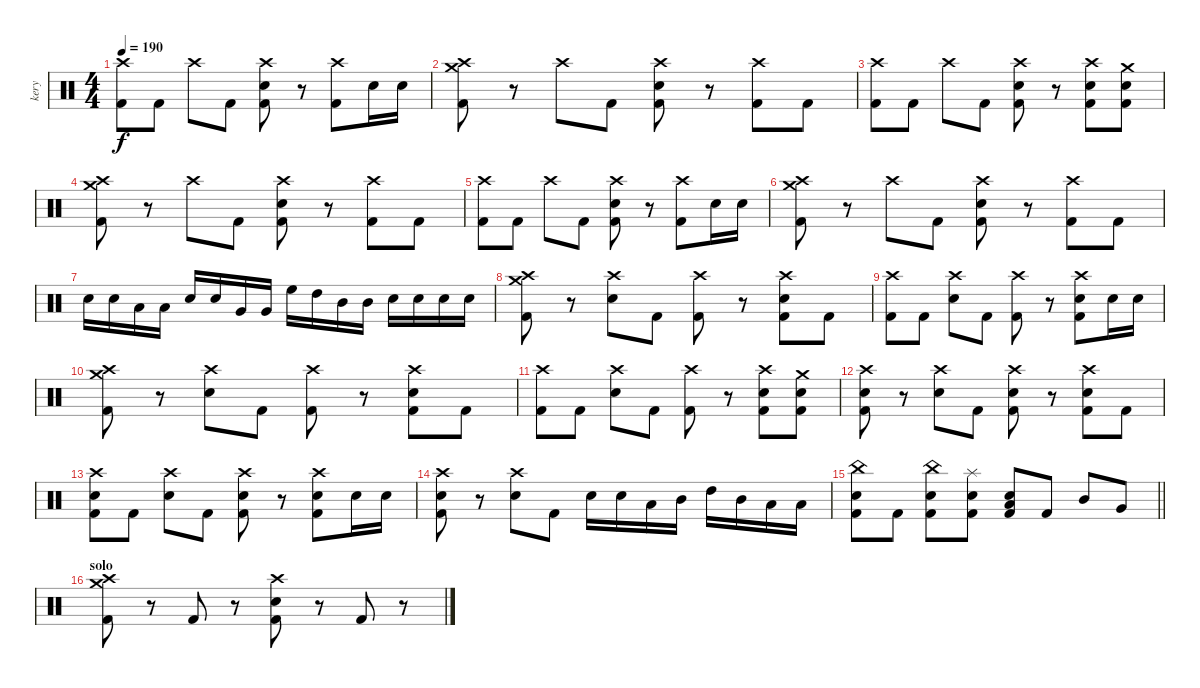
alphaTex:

\track ("kery" "kery") {instrument percussion}
\staff {score}
\articulation defaults
\ts (4 4)
\tempo 190
\clef neutral
\ks c
("Crash high (hit)" "Kick (hit) 2").8{dy f} "Kick (hit) 2".8 "Crash high (hit)".8 "Kick (hit) 2".8 ("Crash high (hit)" "Electric Snare (hit)" "Kick (hit) 2").8 r.8 ("Crash high (hit)" "Kick (hit) 2").8 "Electric Snare (hit)".16 "Electric Snare (hit)".16 |
("Crash high (hit)" "Crash medium (hit)" "Kick (hit) 2").8 r.8 "Crash high (hit)".8 "Kick (hit) 2".8 ("Crash high (hit)" "Electric Snare (hit)" "Kick (hit) 2").8 r.8 ("Crash high (hit)" "Kick (hit) 2").8 "Kick (hit) 2".8 |
("Crash high (hit)" "Kick (hit) 2").8 "Kick (hit) 2".8 "Crash high (hit)".8 "Kick (hit) 2".8 ("Crash high (hit)" "Electric Snare (hit)" "Kick (hit) 2").8 r.8 ("Crash high (hit)" "Electric Snare (hit)" "Kick (hit) 2").8 ("Crash medium (hit)" "Electric Snare (hit)" "Kick (hit) 2").8 |
("Crash high (hit)" "Crash medium (hit)" "Kick (hit) 2").8 r.8 "Crash high (hit)".8 "Kick (hit) 2".8 ("Crash high (hit)" "Electric Snare (hit)" "Kick (hit) 2").8 r.8 ("Crash high (hit)" "Kick (hit) 2").8 "Kick (hit) 2".8 |
("Crash high (hit)" "Kick (hit) 2").8 "Kick (hit) 2".8 "Crash high (hit)".8 "Kick (hit) 2".8 ("Crash high (hit)" "Electric Snare (hit)" "Kick (hit) 2").8 r.8 ("Crash high (hit)" "Kick (hit) 2").8 "Electric Snare (hit)".16 "Electric Snare (hit)".16 |
("Crash high (hit)" "Crash medium (hit)" "Kick (hit) 2").8 r.8 "Crash high (hit)".8 "Kick (hit) 2".8 ("Crash high (hit)" "Electric Snare (hit)" "Kick (hit) 2").8 r.8 ("Crash high (hit)" "Kick (hit) 2").8 "Kick (hit) 2".8 |
"Electric Snare (hit)".16 "Electric Snare (hit)".16 "Low Tom (hit)".16 "Low Tom (hit)".16 "Electric Snare (hit)".16 "Electric Snare (hit)".16 "Very Low Tom (hit)".16 "Very Low Tom (hit)".16 "High Floor Tom (hit)".16 "High Tom (hit)".16 "Mid Tom (hit)".16 "Mid Tom (hit)".16 "Electric Snare (hit)".16 "Electric Snare (hit)".16 "Electric Snare (hit)".16 "Electric Snare (hit)".16 |
("Crash high (hit)" "Crash medium (hit)" "Kick (hit) 2").8 r.8 ("Crash high (hit)" "Electric Snare (hit)").8 "Kick (hit) 2".8 ("Crash high (hit)" "Kick (hit) 2").8 r.8 ("Crash high (hit)" "Electric Snare (hit)" "Kick (hit) 2").8 "Kick (hit) 2".8 |
("Crash high (hit)" "Kick (hit) 2").8 "Kick (hit) 2".8 ("Crash high (hit)" "Electric Snare (hit)").8 "Kick (hit) 2".8 ("Crash high (hit)" "Kick (hit) 2").8 r.8 ("Crash high (hit)" "Electric Snare (hit)" "Kick (hit) 2").8 "Electric Snare (hit)".16 "Electric Snare (hit)".16 |
("Crash high (hit)" "Crash medium (hit)" "Kick (hit) 2").8 r.8 ("Crash high (hit)" "Electric Snare (hit)").8 "Kick (hit) 2".8 ("Crash high (hit)" "Kick (hit) 2").8 r.8 ("Crash high (hit)" "Electric Snare (hit)" "Kick (hit) 2").8 "Kick (hit) 2".8 |
("Crash high (hit)" "Kick (hit) 2").8 "Kick (hit) 2".8 ("Crash high (hit)" "Electric Snare (hit)").8 "Kick (hit) 2".8 ("Crash high (hit)" "Kick (hit) 2").8 r.8 ("Crash high (hit)" "Electric Snare (hit)" "Kick (hit) 2").8 ("Crash medium (hit)" "Electric Snare (hit)" "Kick (hit) 2").8 |
("Crash high (hit)" "Electric Snare (hit)" "Kick (hit) 2").8 r.8 ("Crash high (hit)" "Electric Snare (hit)").8 "Kick (hit) 2".8 ("Crash high (hit)" "Electric Snare (hit)" "Kick (hit) 2").8 r.8 ("Crash high (hit)" "Electric Snare (hit)" "Kick (hit) 2").8 "Kick (hit) 2".8 |
("Crash high (hit)" "Electric Snare (hit)" "Kick (hit) 2").8 "Kick (hit) 2".8 ("Crash high (hit)" "Electric Snare (hit)").8 "Kick (hit) 2".8 ("Crash high (hit)" "Electric Snare (hit)" "Kick (hit) 2").8 r.8 ("Crash high (hit)" "Electric Snare (hit)" "Kick (hit) 2").8 "Electric Snare (hit)".16 "Electric Snare (hit)".16 |
("Crash high (hit)" "Electric Snare (hit)" "Kick (hit) 2").8 r.8 ("Crash high (hit)" "Electric Snare (hit)").8 "Kick (hit) 2".8 "Electric Snare (hit)".16 "Electric Snare (hit)".16 "Low Tom (hit)".16 "Mid Tom (hit)".16 "High Tom (hit)".16 "Mid Tom (hit)".16 "Low Tom (hit)".16 "Low Tom (hit)".16 |
\barLineRight lightlight
("China (hit)" "Electric Snare (hit)" "Kick (hit) 2").8 "Kick (hit) 2".8 ("China (hit)" "Electric Snare (hit)" "Kick (hit) 2").8 ("Splash (hit)" "Electric Snare (hit)" "Kick (hit) 2").8 ("Electric Snare (hit)" "Low Floor Tom (hit)" "Kick (hit) 2").8 "Kick (hit) 2".8 "Mid Tom (hit)".8 "Very Low Tom (hit)".8 |
\section ("" "solo")
("Crash high (hit)" "Crash medium (hit)" "Kick (hit) 2").8 r.8 "Kick (hit) 2".8 r.8 ("Crash high (hit)" "Electric Snare (hit)" "Kick (hit) 2").8 r.8 "Kick (hit) 2".8 r.8
